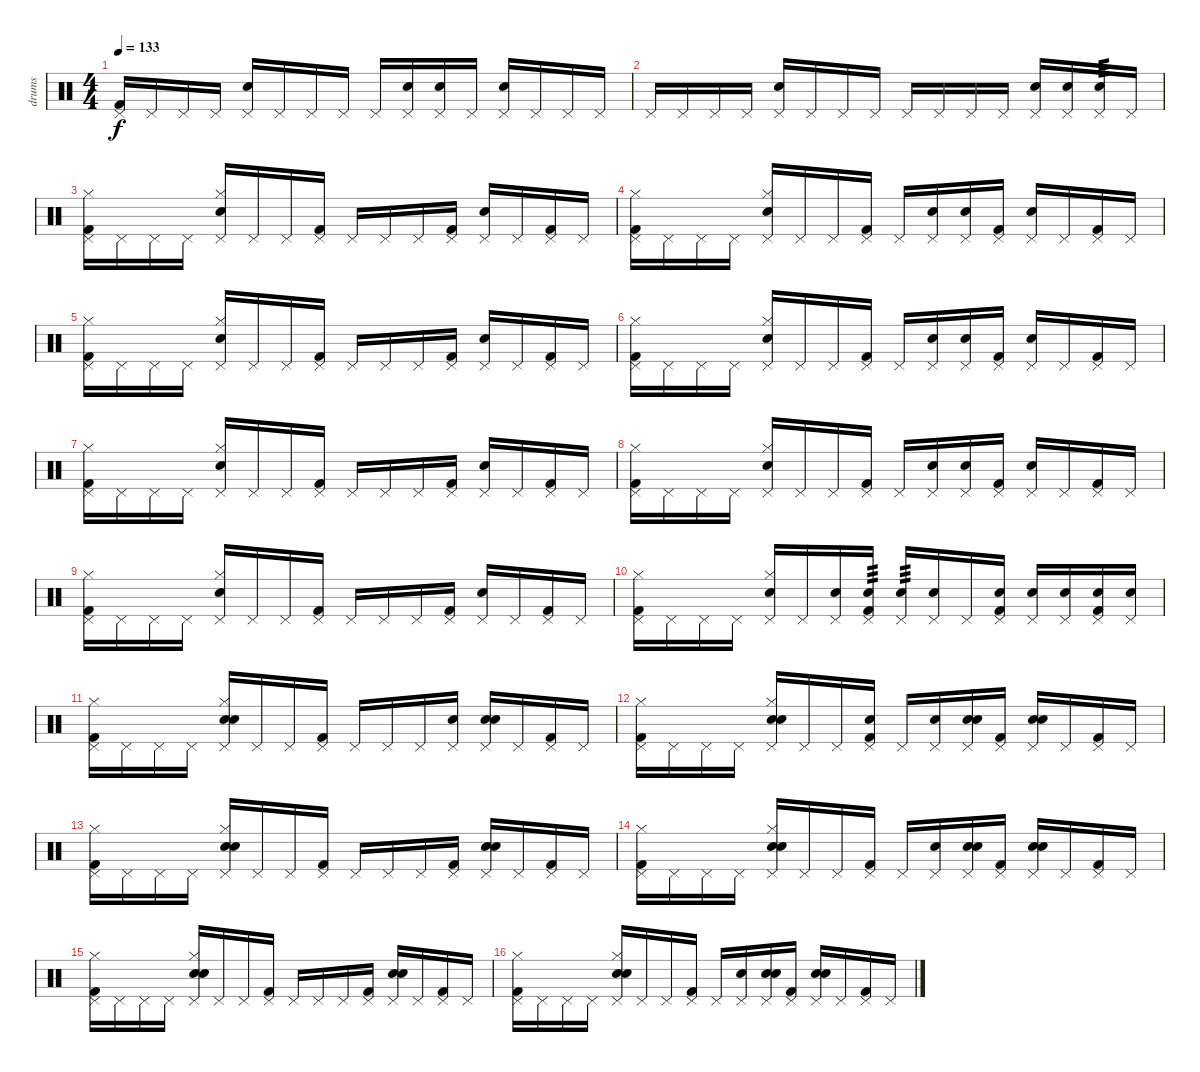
\track ("drums" "drums") {instrument percussion}
\staff {score}
\articulation defaults
\ts (4 4)
\tempo 133
\clef neutral
\ks c
("Pedal Hi-Hat (hit)" "Kick (hit) 2").16{dy f} "Pedal Hi-Hat (hit)".16 "Pedal Hi-Hat (hit)".16 "Pedal Hi-Hat (hit)".16 ("Pedal Hi-Hat (hit)" "Electric Snare (hit)").16 "Pedal Hi-Hat (hit)".16 "Pedal Hi-Hat (hit)".16 "Pedal Hi-Hat (hit)".16 "Pedal Hi-Hat (hit)".16 ("Pedal Hi-Hat (hit)" "Electric Snare (hit)").16 ("Pedal Hi-Hat (hit)" "Electric Snare (hit)").16 "Pedal Hi-Hat (hit)".16 ("Pedal Hi-Hat (hit)" "Electric Snare (hit)").16 "Pedal Hi-Hat (hit)".16 "Pedal Hi-Hat (hit)".16 "Pedal Hi-Hat (hit)".16 |
"Pedal Hi-Hat (hit)".16 "Pedal Hi-Hat (hit)".16 "Pedal Hi-Hat (hit)".16 "Pedal Hi-Hat (hit)".16 ("Pedal Hi-Hat (hit)" "Electric Snare (hit)").16 "Pedal Hi-Hat (hit)".16 "Pedal Hi-Hat (hit)".16 "Pedal Hi-Hat (hit)".16 "Pedal Hi-Hat (hit)".16 "Pedal Hi-Hat (hit)".16 "Pedal Hi-Hat (hit)".16 "Pedal Hi-Hat (hit)".16 ("Pedal Hi-Hat (hit)" "Electric Snare (hit)").16 ("Pedal Hi-Hat (hit)" "Electric Snare (hit)").16 ("Pedal Hi-Hat (hit)" "Electric Snare (hit)").16{tp 3} "Pedal Hi-Hat (hit)".16 |
("Kick (hit) 2" "Hi-Hat (closed)" "Pedal Hi-Hat (hit)").16 "Pedal Hi-Hat (hit)".16 "Pedal Hi-Hat (hit)".16 "Pedal Hi-Hat (hit)".16 ("Snare (hit) 2" "Hi-Hat (closed)" "Pedal Hi-Hat (hit)").16 "Pedal Hi-Hat (hit)".16 "Pedal Hi-Hat (hit)".16 ("Kick (hit) 2" "Pedal Hi-Hat (hit)").16 "Pedal Hi-Hat (hit)".16 "Pedal Hi-Hat (hit)".16 "Pedal Hi-Hat (hit)".16 ("Kick (hit) 2" "Pedal Hi-Hat (hit)").16 ("Snare (hit) 2" "Pedal Hi-Hat (hit)").16 "Pedal Hi-Hat (hit)".16 ("Kick (hit) 2" "Pedal Hi-Hat (hit)").16 "Pedal Hi-Hat (hit)".16 |
("Kick (hit) 2" "Hi-Hat (closed)" "Pedal Hi-Hat (hit)").16 "Pedal Hi-Hat (hit)".16 "Pedal Hi-Hat (hit)".16 "Pedal Hi-Hat (hit)".16 ("Snare (hit) 2" "Hi-Hat (closed)" "Pedal Hi-Hat (hit)").16 "Pedal Hi-Hat (hit)".16 "Pedal Hi-Hat (hit)".16 ("Kick (hit) 2" "Pedal Hi-Hat (hit)").16 "Pedal Hi-Hat (hit)".16 ("Snare (hit) 2" "Pedal Hi-Hat (hit)").16 ("Snare (hit) 2" "Pedal Hi-Hat (hit)").16 ("Kick (hit) 2" "Pedal Hi-Hat (hit)").16 ("Snare (hit) 2" "Pedal Hi-Hat (hit)").16 "Pedal Hi-Hat (hit)".16 ("Kick (hit) 2" "Pedal Hi-Hat (hit)").16 "Pedal Hi-Hat (hit)".16 |
("Kick (hit) 2" "Hi-Hat (closed)" "Pedal Hi-Hat (hit)").16 "Pedal Hi-Hat (hit)".16 "Pedal Hi-Hat (hit)".16 "Pedal Hi-Hat (hit)".16 ("Snare (hit) 2" "Hi-Hat (closed)" "Pedal Hi-Hat (hit)").16 "Pedal Hi-Hat (hit)".16 "Pedal Hi-Hat (hit)".16 ("Kick (hit) 2" "Pedal Hi-Hat (hit)").16 "Pedal Hi-Hat (hit)".16 "Pedal Hi-Hat (hit)".16 "Pedal Hi-Hat (hit)".16 ("Kick (hit) 2" "Pedal Hi-Hat (hit)").16 ("Snare (hit) 2" "Pedal Hi-Hat (hit)").16 "Pedal Hi-Hat (hit)".16 ("Kick (hit) 2" "Pedal Hi-Hat (hit)").16 "Pedal Hi-Hat (hit)".16 |
("Kick (hit) 2" "Hi-Hat (closed)" "Pedal Hi-Hat (hit)").16 "Pedal Hi-Hat (hit)".16 "Pedal Hi-Hat (hit)".16 "Pedal Hi-Hat (hit)".16 ("Snare (hit) 2" "Hi-Hat (closed)" "Pedal Hi-Hat (hit)").16 "Pedal Hi-Hat (hit)".16 "Pedal Hi-Hat (hit)".16 ("Kick (hit) 2" "Pedal Hi-Hat (hit)").16 "Pedal Hi-Hat (hit)".16 ("Snare (hit) 2" "Pedal Hi-Hat (hit)").16 ("Snare (hit) 2" "Pedal Hi-Hat (hit)").16 ("Kick (hit) 2" "Pedal Hi-Hat (hit)").16 ("Snare (hit) 2" "Pedal Hi-Hat (hit)").16 "Pedal Hi-Hat (hit)".16 ("Kick (hit) 2" "Pedal Hi-Hat (hit)").16 "Pedal Hi-Hat (hit)".16 |
("Kick (hit) 2" "Hi-Hat (closed)" "Pedal Hi-Hat (hit)").16 "Pedal Hi-Hat (hit)".16 "Pedal Hi-Hat (hit)".16 "Pedal Hi-Hat (hit)".16 ("Snare (hit) 2" "Hi-Hat (closed)" "Pedal Hi-Hat (hit)").16 "Pedal Hi-Hat (hit)".16 "Pedal Hi-Hat (hit)".16 ("Kick (hit) 2" "Pedal Hi-Hat (hit)").16 "Pedal Hi-Hat (hit)".16 "Pedal Hi-Hat (hit)".16 "Pedal Hi-Hat (hit)".16 ("Kick (hit) 2" "Pedal Hi-Hat (hit)").16 ("Snare (hit) 2" "Pedal Hi-Hat (hit)").16 "Pedal Hi-Hat (hit)".16 ("Kick (hit) 2" "Pedal Hi-Hat (hit)").16 "Pedal Hi-Hat (hit)".16 |
("Kick (hit) 2" "Hi-Hat (closed)" "Pedal Hi-Hat (hit)").16 "Pedal Hi-Hat (hit)".16 "Pedal Hi-Hat (hit)".16 "Pedal Hi-Hat (hit)".16 ("Snare (hit) 2" "Hi-Hat (closed)" "Pedal Hi-Hat (hit)").16 "Pedal Hi-Hat (hit)".16 "Pedal Hi-Hat (hit)".16 ("Kick (hit) 2" "Pedal Hi-Hat (hit)").16 "Pedal Hi-Hat (hit)".16 ("Snare (hit) 2" "Pedal Hi-Hat (hit)").16 ("Snare (hit) 2" "Pedal Hi-Hat (hit)").16 ("Kick (hit) 2" "Pedal Hi-Hat (hit)").16 ("Snare (hit) 2" "Pedal Hi-Hat (hit)").16 "Pedal Hi-Hat (hit)".16 ("Kick (hit) 2" "Pedal Hi-Hat (hit)").16 "Pedal Hi-Hat (hit)".16 |
("Kick (hit) 2" "Hi-Hat (closed)" "Pedal Hi-Hat (hit)").16 "Pedal Hi-Hat (hit)".16 "Pedal Hi-Hat (hit)".16 "Pedal Hi-Hat (hit)".16 ("Snare (hit) 2" "Hi-Hat (closed)" "Pedal Hi-Hat (hit)").16 "Pedal Hi-Hat (hit)".16 "Pedal Hi-Hat (hit)".16 ("Kick (hit) 2" "Pedal Hi-Hat (hit)").16 "Pedal Hi-Hat (hit)".16 "Pedal Hi-Hat (hit)".16 "Pedal Hi-Hat (hit)".16 ("Kick (hit) 2" "Pedal Hi-Hat (hit)").16 ("Snare (hit) 2" "Pedal Hi-Hat (hit)").16 "Pedal Hi-Hat (hit)".16 ("Kick (hit) 2" "Pedal Hi-Hat (hit)").16 "Pedal Hi-Hat (hit)".16 |
("Kick (hit) 2" "Hi-Hat (closed)" "Pedal Hi-Hat (hit)").16 "Pedal Hi-Hat (hit)".16 "Pedal Hi-Hat (hit)".16 "Pedal Hi-Hat (hit)".16 ("Snare (hit) 2" "Hi-Hat (closed)" "Pedal Hi-Hat (hit)").16 "Pedal Hi-Hat (hit)".16 ("Snare (hit) 2" "Pedal Hi-Hat (hit)").16 ("Snare (hit) 2" "Kick (hit) 2" "Pedal Hi-Hat (hit)").16{tp 3} ("Snare (hit) 2" "Pedal Hi-Hat (hit)").16{tp 3} ("Snare (hit) 2" "Pedal Hi-Hat (hit)").16 "Pedal Hi-Hat (hit)".16 ("Snare (hit) 2" "Kick (hit) 2" "Pedal Hi-Hat (hit)").16 ("Snare (hit) 2" "Pedal Hi-Hat (hit)").16 ("Snare (hit) 2" "Pedal Hi-Hat (hit)").16 ("Snare (hit) 2" "Kick (hit) 2" "Pedal Hi-Hat (hit)").16 ("Snare (hit) 2" "Pedal Hi-Hat (hit)").16 |
("Kick (hit) 2" "Hi-Hat (closed)" "Pedal Hi-Hat (hit)").16 "Pedal Hi-Hat (hit)".16 "Pedal Hi-Hat (hit)".16 "Pedal Hi-Hat (hit)".16 ("Snare (hit) 2" "Hi-Hat (closed)" "Pedal Hi-Hat (hit)" "Hand Clap (hit)").16 "Pedal Hi-Hat (hit)".16 "Pedal Hi-Hat (hit)".16 ("Kick (hit) 2" "Pedal Hi-Hat (hit)").16 "Pedal Hi-Hat (hit)".16 "Pedal Hi-Hat (hit)".16 "Pedal Hi-Hat (hit)".16 ("Pedal Hi-Hat (hit)" "Hand Clap (hit)").16 ("Snare (hit) 2" "Pedal Hi-Hat (hit)" "Hand Clap (hit)").16 "Pedal Hi-Hat (hit)".16 ("Kick (hit) 2" "Pedal Hi-Hat (hit)").16 "Pedal Hi-Hat (hit)".16 |
("Kick (hit) 2" "Hi-Hat (closed)" "Pedal Hi-Hat (hit)").16 "Pedal Hi-Hat (hit)".16 "Pedal Hi-Hat (hit)".16 "Pedal Hi-Hat (hit)".16 ("Snare (hit) 2" "Hi-Hat (closed)" "Pedal Hi-Hat (hit)" "Hand Clap (hit)").16 "Pedal Hi-Hat (hit)".16 "Pedal Hi-Hat (hit)".16 ("Kick (hit) 2" "Pedal Hi-Hat (hit)" "Hand Clap (hit)").16 "Pedal Hi-Hat (hit)".16 ("Snare (hit) 2" "Pedal Hi-Hat (hit)").16 ("Snare (hit) 2" "Pedal Hi-Hat (hit)" "Hand Clap (hit)").16 ("Kick (hit) 2" "Pedal Hi-Hat (hit)").16 ("Snare (hit) 2" "Pedal Hi-Hat (hit)" "Hand Clap (hit)").16 "Pedal Hi-Hat (hit)".16 ("Kick (hit) 2" "Pedal Hi-Hat (hit)").16 "Pedal Hi-Hat (hit)".16 |
("Kick (hit) 2" "Hi-Hat (closed)" "Pedal Hi-Hat (hit)").16 "Pedal Hi-Hat (hit)".16 "Pedal Hi-Hat (hit)".16 "Pedal Hi-Hat (hit)".16 ("Snare (hit) 2" "Hi-Hat (closed)" "Pedal Hi-Hat (hit)" "Hand Clap (hit)").16 "Pedal Hi-Hat (hit)".16 "Pedal Hi-Hat (hit)".16 ("Kick (hit) 2" "Pedal Hi-Hat (hit)").16 "Pedal Hi-Hat (hit)".16 "Pedal Hi-Hat (hit)".16 "Pedal Hi-Hat (hit)".16 ("Kick (hit) 2" "Pedal Hi-Hat (hit)").16 ("Snare (hit) 2" "Pedal Hi-Hat (hit)" "Hand Clap (hit)").16 "Pedal Hi-Hat (hit)".16 ("Kick (hit) 2" "Pedal Hi-Hat (hit)").16 "Pedal Hi-Hat (hit)".16 |
("Kick (hit) 2" "Hi-Hat (closed)" "Pedal Hi-Hat (hit)").16 "Pedal Hi-Hat (hit)".16 "Pedal Hi-Hat (hit)".16 "Pedal Hi-Hat (hit)".16 ("Snare (hit) 2" "Hi-Hat (closed)" "Pedal Hi-Hat (hit)" "Hand Clap (hit)").16 "Pedal Hi-Hat (hit)".16 "Pedal Hi-Hat (hit)".16 ("Kick (hit) 2" "Pedal Hi-Hat (hit)").16 "Pedal Hi-Hat (hit)".16 ("Snare (hit) 2" "Pedal Hi-Hat (hit)").16 ("Snare (hit) 2" "Pedal Hi-Hat (hit)" "Hand Clap (hit)").16 ("Kick (hit) 2" "Pedal Hi-Hat (hit)").16 ("Snare (hit) 2" "Pedal Hi-Hat (hit)" "Hand Clap (hit)").16 "Pedal Hi-Hat (hit)".16 ("Kick (hit) 2" "Pedal Hi-Hat (hit)").16 "Pedal Hi-Hat (hit)".16 |
("Kick (hit) 2" "Hi-Hat (closed)" "Pedal Hi-Hat (hit)").16 "Pedal Hi-Hat (hit)".16 "Pedal Hi-Hat (hit)".16 "Pedal Hi-Hat (hit)".16 ("Snare (hit) 2" "Hi-Hat (closed)" "Pedal Hi-Hat (hit)" "Hand Clap (hit)").16 "Pedal Hi-Hat (hit)".16 "Pedal Hi-Hat (hit)".16 ("Kick (hit) 2" "Pedal Hi-Hat (hit)").16 "Pedal Hi-Hat (hit)".16 "Pedal Hi-Hat (hit)".16 "Pedal Hi-Hat (hit)".16 ("Kick (hit) 2" "Pedal Hi-Hat (hit)").16 ("Snare (hit) 2" "Pedal Hi-Hat (hit)" "Hand Clap (hit)").16 "Pedal Hi-Hat (hit)".16 ("Kick (hit) 2" "Pedal Hi-Hat (hit)").16 "Pedal Hi-Hat (hit)".16 |
("Kick (hit) 2" "Hi-Hat (closed)" "Pedal Hi-Hat (hit)").16 "Pedal Hi-Hat (hit)".16 "Pedal Hi-Hat (hit)".16 "Pedal Hi-Hat (hit)".16 ("Snare (hit) 2" "Hi-Hat (closed)" "Pedal Hi-Hat (hit)" "Hand Clap (hit)").16 "Pedal Hi-Hat (hit)".16 "Pedal Hi-Hat (hit)".16 ("Kick (hit) 2" "Pedal Hi-Hat (hit)").16 "Pedal Hi-Hat (hit)".16 ("Snare (hit) 2" "Pedal Hi-Hat (hit)").16 ("Snare (hit) 2" "Pedal Hi-Hat (hit)" "Hand Clap (hit)").16 ("Kick (hit) 2" "Pedal Hi-Hat (hit)").16 ("Snare (hit) 2" "Pedal Hi-Hat (hit)" "Hand Clap (hit)").16 "Pedal Hi-Hat (hit)".16 ("Kick (hit) 2" "Pedal Hi-Hat (hit)").16 "Pedal Hi-Hat (hit)".16
